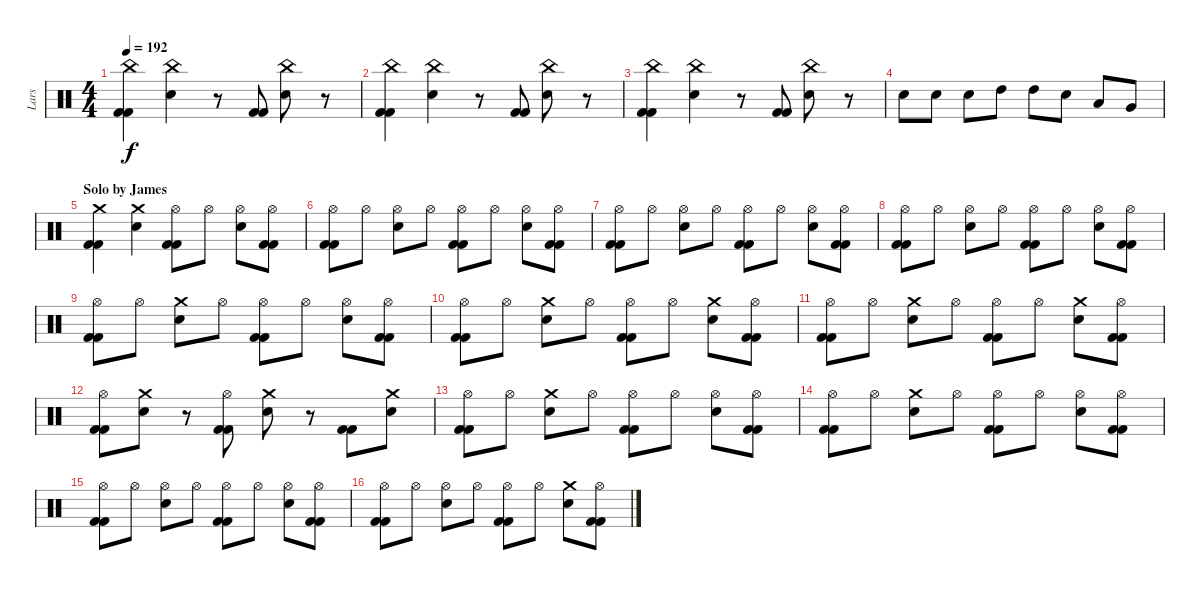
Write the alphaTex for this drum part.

\track ("Lars" "Lars") {instrument percussion}
\staff {score}
\articulation defaults
\ts (4 4)
\tempo 192
\clef neutral
\ks c
("China (hit)" "Kick (hit) 2" "Kick (hit) 2").4{dy f} ("Electric Snare (hit)" "China (hit)").4 r.8 ("Kick (hit) 2" "Kick (hit) 2").8 ("Electric Snare (hit)" "China (hit)").8 r.8 |
("China (hit)" "Kick (hit) 2" "Kick (hit) 2").4 ("Electric Snare (hit)" "China (hit)").4 r.8 ("Kick (hit) 2" "Kick (hit) 2").8 ("Electric Snare (hit)" "China (hit)").8 r.8 |
("China (hit)" "Kick (hit) 2" "Kick (hit) 2").4 ("Electric Snare (hit)" "China (hit)").4 r.8 ("Kick (hit) 2" "Kick (hit) 2").8 ("Electric Snare (hit)" "China (hit)").8 r.8 |
"Electric Snare (hit)".8 "Electric Snare (hit)".8 "Electric Snare (hit)".8 "High Tom (hit)".8 "High Tom (hit)".8 "Electric Snare (hit)".8 "Low Tom (hit)".8 "Very Low Tom (hit)".8 |
\section ("" "Solo by James")
("Crash medium (hit)" "Kick (hit) 2" "Kick (hit) 2").4 ("Electric Snare (hit)" "Crash medium (hit)").4 ("Hi-Hat (open)" "Kick (hit) 2" "Kick (hit) 2").8 "Hi-Hat (open)".8 ("Electric Snare (hit)" "Hi-Hat (open)").8 ("Hi-Hat (open)" "Kick (hit) 2" "Kick (hit) 2").8 |
("Hi-Hat (open)" "Kick (hit) 2" "Kick (hit) 2").8 "Hi-Hat (open)".8 ("Electric Snare (hit)" "Hi-Hat (open)").8 "Hi-Hat (open)".8 ("Hi-Hat (open)" "Kick (hit) 2" "Kick (hit) 2").8 "Hi-Hat (open)".8 ("Electric Snare (hit)" "Hi-Hat (open)").8 ("Hi-Hat (open)" "Kick (hit) 2" "Kick (hit) 2").8 |
("Hi-Hat (open)" "Kick (hit) 2" "Kick (hit) 2").8 "Hi-Hat (open)".8 ("Electric Snare (hit)" "Hi-Hat (open)").8 "Hi-Hat (open)".8 ("Hi-Hat (open)" "Kick (hit) 2" "Kick (hit) 2").8 "Hi-Hat (open)".8 ("Electric Snare (hit)" "Hi-Hat (open)").8 ("Hi-Hat (open)" "Kick (hit) 2" "Kick (hit) 2").8 |
("Hi-Hat (open)" "Kick (hit) 2" "Kick (hit) 2").8 "Hi-Hat (open)".8 ("Electric Snare (hit)" "Hi-Hat (open)").8 "Hi-Hat (open)".8 ("Hi-Hat (open)" "Kick (hit) 2" "Kick (hit) 2").8 "Hi-Hat (open)".8 ("Electric Snare (hit)" "Hi-Hat (open)").8 ("Hi-Hat (open)" "Kick (hit) 2" "Kick (hit) 2").8 |
("Hi-Hat (open)" "Kick (hit) 2" "Kick (hit) 2").8 "Hi-Hat (open)".8 ("Electric Snare (hit)" "Crash medium (hit)").8 "Hi-Hat (open)".8 ("Hi-Hat (open)" "Kick (hit) 2" "Kick (hit) 2").8 "Hi-Hat (open)".8 ("Electric Snare (hit)" "Hi-Hat (open)").8 ("Hi-Hat (open)" "Kick (hit) 2" "Kick (hit) 2").8 |
("Hi-Hat (open)" "Kick (hit) 2" "Kick (hit) 2").8 "Hi-Hat (open)".8 ("Electric Snare (hit)" "Crash medium (hit)").8 "Hi-Hat (open)".8 ("Hi-Hat (open)" "Kick (hit) 2" "Kick (hit) 2").8 "Hi-Hat (open)".8 ("Electric Snare (hit)" "Crash medium (hit)").8 ("Hi-Hat (open)" "Kick (hit) 2" "Kick (hit) 2").8 |
("Hi-Hat (open)" "Kick (hit) 2" "Kick (hit) 2").8 "Hi-Hat (open)".8 ("Electric Snare (hit)" "Crash medium (hit)").8 "Hi-Hat (open)".8 ("Hi-Hat (open)" "Kick (hit) 2" "Kick (hit) 2").8 "Hi-Hat (open)".8 ("Electric Snare (hit)" "Crash medium (hit)").8 ("Hi-Hat (open)" "Kick (hit) 2" "Kick (hit) 2").8 |
("Hi-Hat (open)" "Kick (hit) 2" "Kick (hit) 2").8 ("Electric Snare (hit)" "Crash medium (hit)").8 r.8 ("Hi-Hat (open)" "Kick (hit) 2" "Kick (hit) 2").8 ("Electric Snare (hit)" "Crash medium (hit)").8 r.8 ("Kick (hit) 2" "Kick (hit) 2").8 ("Electric Snare (hit)" "Crash medium (hit)").8 |
("Hi-Hat (open)" "Kick (hit) 2" "Kick (hit) 2").8 "Hi-Hat (open)".8 ("Electric Snare (hit)" "Crash medium (hit)").8 "Hi-Hat (open)".8 ("Hi-Hat (open)" "Kick (hit) 2" "Kick (hit) 2").8 "Hi-Hat (open)".8 ("Electric Snare (hit)" "Hi-Hat (open)").8 ("Hi-Hat (open)" "Kick (hit) 2" "Kick (hit) 2").8 |
("Hi-Hat (open)" "Kick (hit) 2" "Kick (hit) 2").8 "Hi-Hat (open)".8 ("Electric Snare (hit)" "Crash medium (hit)").8 "Hi-Hat (open)".8 ("Hi-Hat (open)" "Kick (hit) 2" "Kick (hit) 2").8 "Hi-Hat (open)".8 ("Electric Snare (hit)" "Hi-Hat (open)").8 ("Hi-Hat (open)" "Kick (hit) 2" "Kick (hit) 2").8 |
("Hi-Hat (open)" "Kick (hit) 2" "Kick (hit) 2").8 "Hi-Hat (open)".8 ("Electric Snare (hit)" "Hi-Hat (open)").8 "Hi-Hat (open)".8 ("Hi-Hat (open)" "Kick (hit) 2" "Kick (hit) 2").8 "Hi-Hat (open)".8 ("Electric Snare (hit)" "Hi-Hat (open)").8 ("Hi-Hat (open)" "Kick (hit) 2" "Kick (hit) 2").8 |
("Hi-Hat (open)" "Kick (hit) 2" "Kick (hit) 2").8 "Hi-Hat (open)".8 ("Electric Snare (hit)" "Hi-Hat (open)").8 "Hi-Hat (open)".8 ("Hi-Hat (open)" "Kick (hit) 2" "Kick (hit) 2").8 "Hi-Hat (open)".8 ("Electric Snare (hit)" "Crash medium (hit)").8 ("Hi-Hat (open)" "Kick (hit) 2" "Kick (hit) 2").8
